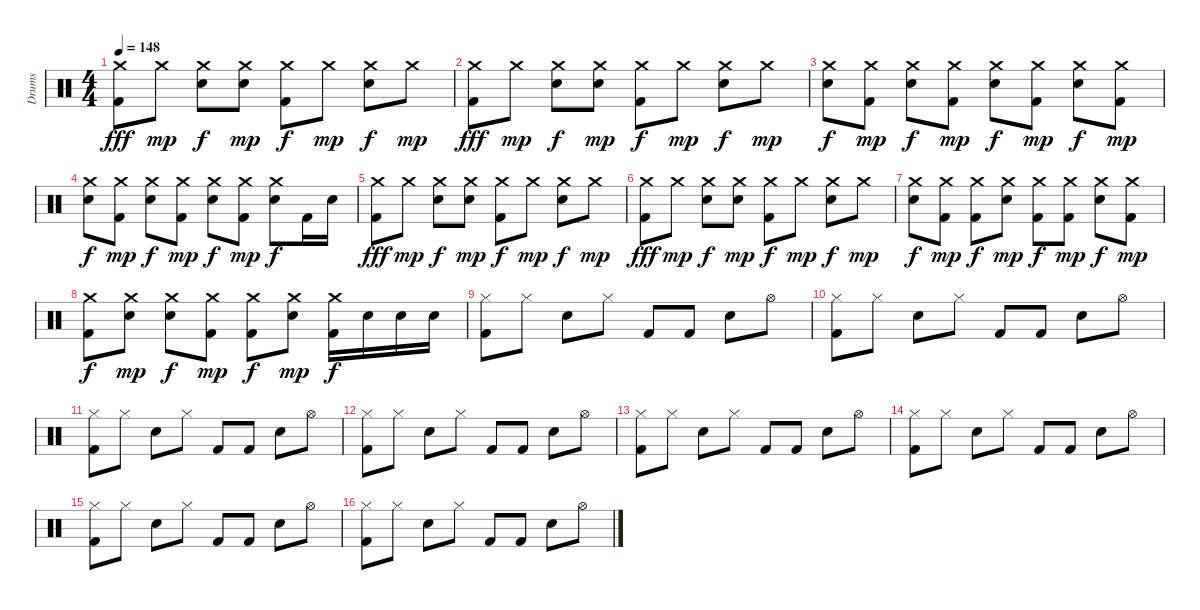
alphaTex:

\track ("Drums" "Drums") {instrument percussion}
\staff {score}
\articulation defaults
\ts (4 4)
\tempo 148
\clef neutral
\ks c
("Crash medium (hit)" "Kick (hit) 2").8{dy fff} "Crash medium (hit)".8{dy mp} ("Crash medium (hit)" "Snare (hit) 2").8{dy f} ("Crash medium (hit)" "Snare (hit) 2").8{dy mp} ("Crash medium (hit)" "Kick (hit) 2").8{dy f} "Crash medium (hit)".8{dy mp} ("Crash medium (hit)" "Snare (hit) 2").8{dy f} "Crash medium (hit)".8{dy mp} |
("Crash medium (hit)" "Kick (hit) 2").8{dy fff} "Crash medium (hit)".8{dy mp} ("Crash medium (hit)" "Snare (hit) 2").8{dy f} ("Crash medium (hit)" "Snare (hit) 2").8{dy mp} ("Crash medium (hit)" "Kick (hit) 2").8{dy f} "Crash medium (hit)".8{dy mp} ("Crash medium (hit)" "Snare (hit) 2").8{dy f} "Crash medium (hit)".8{dy mp} |
("Crash medium (hit)" "Snare (hit) 2").8{dy f} ("Crash medium (hit)" "Kick (hit) 2").8{dy mp} ("Crash medium (hit)" "Snare (hit) 2").8{dy f} ("Crash medium (hit)" "Kick (hit) 2").8{dy mp} ("Crash medium (hit)" "Snare (hit) 2").8{dy f} ("Crash medium (hit)" "Kick (hit) 2").8{dy mp} ("Crash medium (hit)" "Snare (hit) 2").8{dy f} ("Crash medium (hit)" "Kick (hit) 2").8{dy mp} |
("Crash medium (hit)" "Snare (hit) 2").8{dy f} ("Crash medium (hit)" "Kick (hit) 2").8{dy mp} ("Crash medium (hit)" "Snare (hit) 2").8{dy f} ("Crash medium (hit)" "Kick (hit) 2").8{dy mp} ("Crash medium (hit)" "Snare (hit) 2").8{dy f} ("Crash medium (hit)" "Kick (hit) 2").8{dy mp} ("Crash medium (hit)" "Snare (hit) 2").8{dy f} "Kick (hit) 2".16 "Snare (hit) 2".16 |
("Crash medium (hit)" "Kick (hit) 2").8{dy fff} "Crash medium (hit)".8{dy mp} ("Crash medium (hit)" "Snare (hit) 2").8{dy f} ("Crash medium (hit)" "Snare (hit) 2").8{dy mp} ("Crash medium (hit)" "Kick (hit) 2").8{dy f} "Crash medium (hit)".8{dy mp} ("Crash medium (hit)" "Snare (hit) 2").8{dy f} "Crash medium (hit)".8{dy mp} |
("Crash medium (hit)" "Kick (hit) 2").8{dy fff} "Crash medium (hit)".8{dy mp} ("Crash medium (hit)" "Snare (hit) 2").8{dy f} ("Crash medium (hit)" "Snare (hit) 2").8{dy mp} ("Crash medium (hit)" "Kick (hit) 2").8{dy f} "Crash medium (hit)".8{dy mp} ("Crash medium (hit)" "Snare (hit) 2").8{dy f} "Crash medium (hit)".8{dy mp} |
("Crash medium (hit)" "Snare (hit) 2").8{dy f} ("Crash medium (hit)" "Kick (hit) 2").8{dy mp} ("Crash medium (hit)" "Kick (hit) 2").8{dy f} ("Crash medium (hit)" "Snare (hit) 2").8{dy mp} ("Crash medium (hit)" "Kick (hit) 2").8{dy f} ("Crash medium (hit)" "Kick (hit) 2").8{dy mp} ("Crash medium (hit)" "Snare (hit) 2").8{dy f} ("Crash medium (hit)" "Kick (hit) 2").8{dy mp} |
("Crash medium (hit)" "Kick (hit) 2").8{dy f} ("Crash medium (hit)" "Snare (hit) 2").8{dy mp} ("Crash medium (hit)" "Snare (hit) 2").8{dy f} ("Crash medium (hit)" "Kick (hit) 2").8{dy mp} ("Crash medium (hit)" "Kick (hit) 2").8{dy f} ("Crash medium (hit)" "Snare (hit) 2").8{dy mp} ("Crash medium (hit)" "Kick (hit) 2").16{dy f} "Snare (hit) 2".16 "Snare (hit) 2".16 "Snare (hit) 2".16 |
("Hi-Hat (closed)" "Kick (hit) 2").8 "Hi-Hat (closed)".8 "Snare (hit) 2".8 "Hi-Hat (closed)".8 "Kick (hit) 2".8 "Kick (hit) 2".8 "Snare (hit) 2".8 "Hi-Hat (open)".8 |
("Hi-Hat (closed)" "Kick (hit) 2").8 "Hi-Hat (closed)".8 "Snare (hit) 2".8 "Hi-Hat (closed)".8 "Kick (hit) 2".8 "Kick (hit) 2".8 "Snare (hit) 2".8 "Hi-Hat (open)".8 |
("Hi-Hat (closed)" "Kick (hit) 2").8 "Hi-Hat (closed)".8 "Snare (hit) 2".8 "Hi-Hat (closed)".8 "Kick (hit) 2".8 "Kick (hit) 2".8 "Snare (hit) 2".8 "Hi-Hat (open)".8 |
("Hi-Hat (closed)" "Kick (hit) 2").8 "Hi-Hat (closed)".8 "Snare (hit) 2".8 "Hi-Hat (closed)".8 "Kick (hit) 2".8 "Kick (hit) 2".8 "Snare (hit) 2".8 "Hi-Hat (open)".8 |
("Hi-Hat (closed)" "Kick (hit) 2").8 "Hi-Hat (closed)".8 "Snare (hit) 2".8 "Hi-Hat (closed)".8 "Kick (hit) 2".8 "Kick (hit) 2".8 "Snare (hit) 2".8 "Hi-Hat (open)".8 |
("Hi-Hat (closed)" "Kick (hit) 2").8 "Hi-Hat (closed)".8 "Snare (hit) 2".8 "Hi-Hat (closed)".8 "Kick (hit) 2".8 "Kick (hit) 2".8 "Snare (hit) 2".8 "Hi-Hat (open)".8 |
("Hi-Hat (closed)" "Kick (hit) 2").8 "Hi-Hat (closed)".8 "Snare (hit) 2".8 "Hi-Hat (closed)".8 "Kick (hit) 2".8 "Kick (hit) 2".8 "Snare (hit) 2".8 "Hi-Hat (open)".8 |
("Hi-Hat (closed)" "Kick (hit) 2").8 "Hi-Hat (closed)".8 "Snare (hit) 2".8 "Hi-Hat (closed)".8 "Kick (hit) 2".8 "Kick (hit) 2".8 "Snare (hit) 2".8 "Hi-Hat (open)".8
